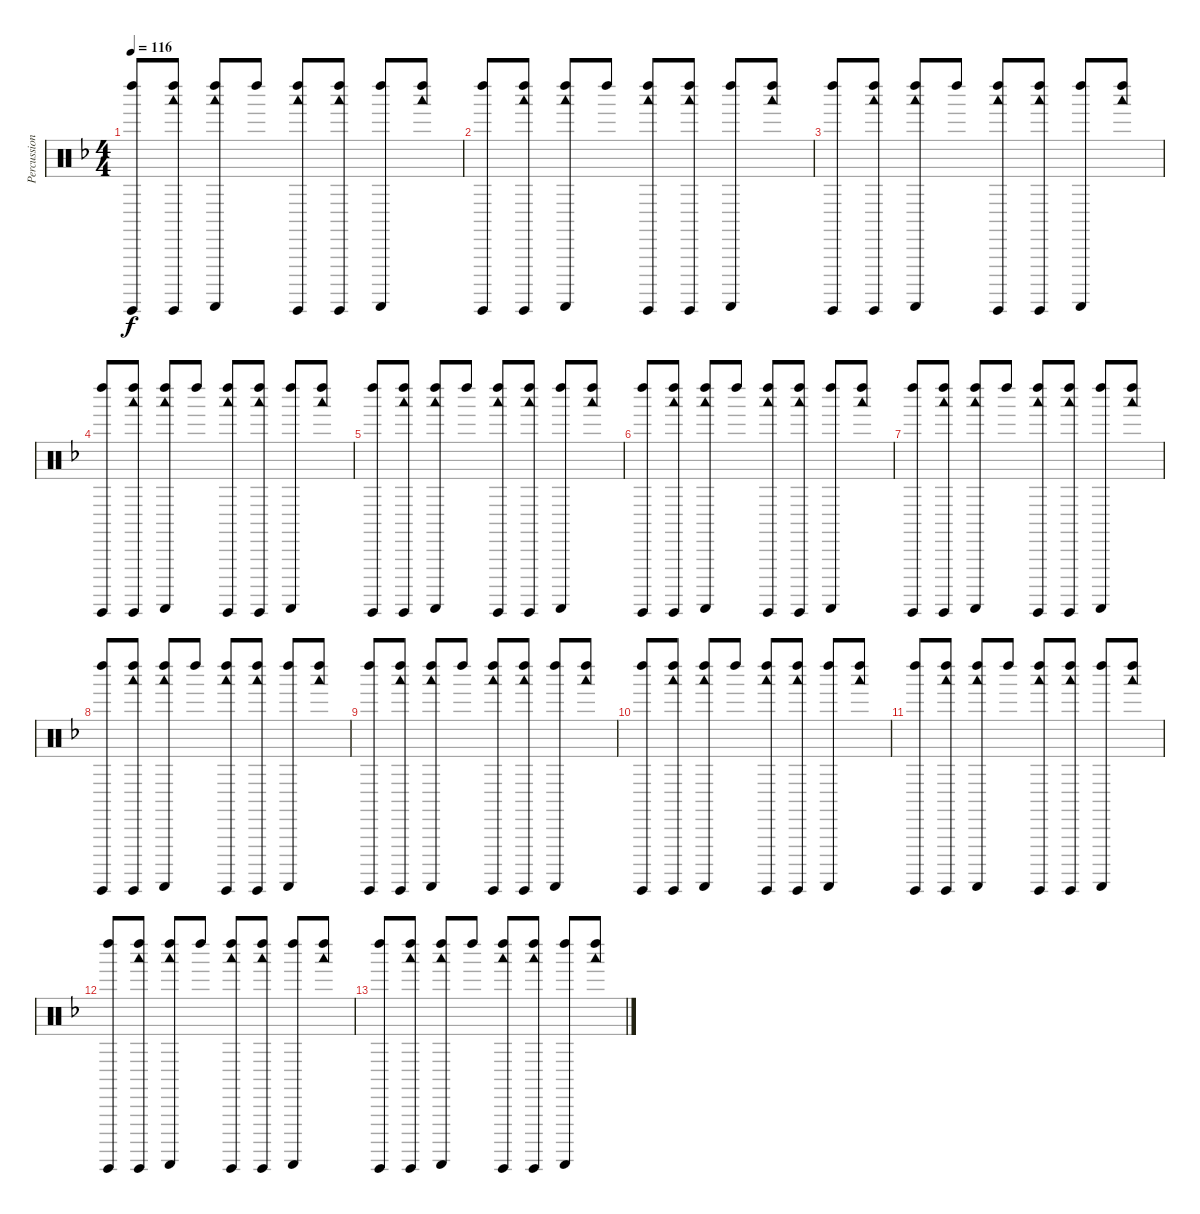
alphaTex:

\track ("Percussions" "Percussion") {instrument percussion}
\staff {score}
\articulation defaults
\ts (4 4)
\tempo 116
\clef neutral
\ks dminor
("Guiro (hit)" "Left Maraca (hit)").8{dy f} ("Guiro (hit)" "Left Maraca (hit)" "Woodblock low (hit)").8 ("Guiro (scrap-return)" "Left Maraca (hit)" "Woodblock low (hit)").8 "Left Maraca (hit)".8 ("Guiro (hit)" "Left Maraca (hit)" "Woodblock low (hit)").8 ("Guiro (hit)" "Left Maraca (hit)" "Woodblock low (hit)").8 ("Guiro (scrap-return)" "Left Maraca (hit)").8 ("Left Maraca (hit)" "Woodblock low (hit)").8 |
("Guiro (hit)" "Left Maraca (hit)").8 ("Guiro (hit)" "Left Maraca (hit)" "Woodblock low (hit)").8 ("Guiro (scrap-return)" "Left Maraca (hit)" "Woodblock low (hit)").8 "Left Maraca (hit)".8 ("Guiro (hit)" "Left Maraca (hit)" "Woodblock low (hit)").8 ("Guiro (hit)" "Left Maraca (hit)" "Woodblock low (hit)").8 ("Guiro (scrap-return)" "Left Maraca (hit)").8 ("Left Maraca (hit)" "Woodblock low (hit)").8 |
("Guiro (hit)" "Left Maraca (hit)").8 ("Guiro (hit)" "Left Maraca (hit)" "Woodblock low (hit)").8 ("Guiro (scrap-return)" "Left Maraca (hit)" "Woodblock low (hit)").8 "Left Maraca (hit)".8 ("Guiro (hit)" "Left Maraca (hit)" "Woodblock low (hit)").8 ("Guiro (hit)" "Left Maraca (hit)" "Woodblock low (hit)").8 ("Guiro (scrap-return)" "Left Maraca (hit)").8 ("Left Maraca (hit)" "Woodblock low (hit)").8 |
("Guiro (hit)" "Left Maraca (hit)").8 ("Guiro (hit)" "Left Maraca (hit)" "Woodblock low (hit)").8 ("Guiro (scrap-return)" "Left Maraca (hit)" "Woodblock low (hit)").8 "Left Maraca (hit)".8 ("Guiro (hit)" "Left Maraca (hit)" "Woodblock low (hit)").8 ("Guiro (hit)" "Left Maraca (hit)" "Woodblock low (hit)").8 ("Guiro (scrap-return)" "Left Maraca (hit)").8 ("Left Maraca (hit)" "Woodblock low (hit)").8 |
("Guiro (hit)" "Left Maraca (hit)").8 ("Guiro (hit)" "Left Maraca (hit)" "Woodblock low (hit)").8 ("Guiro (scrap-return)" "Left Maraca (hit)" "Woodblock low (hit)").8 "Left Maraca (hit)".8 ("Guiro (hit)" "Left Maraca (hit)" "Woodblock low (hit)").8 ("Guiro (hit)" "Left Maraca (hit)" "Woodblock low (hit)").8 ("Guiro (scrap-return)" "Left Maraca (hit)").8 ("Left Maraca (hit)" "Woodblock low (hit)").8 |
("Guiro (hit)" "Left Maraca (hit)").8 ("Guiro (hit)" "Left Maraca (hit)" "Woodblock low (hit)").8 ("Guiro (scrap-return)" "Left Maraca (hit)" "Woodblock low (hit)").8 "Left Maraca (hit)".8 ("Guiro (hit)" "Left Maraca (hit)" "Woodblock low (hit)").8 ("Guiro (hit)" "Left Maraca (hit)" "Woodblock low (hit)").8 ("Guiro (scrap-return)" "Left Maraca (hit)").8 ("Left Maraca (hit)" "Woodblock low (hit)").8 |
("Guiro (hit)" "Left Maraca (hit)").8 ("Guiro (hit)" "Left Maraca (hit)" "Woodblock low (hit)").8 ("Guiro (scrap-return)" "Left Maraca (hit)" "Woodblock low (hit)").8 "Left Maraca (hit)".8 ("Guiro (hit)" "Left Maraca (hit)" "Woodblock low (hit)").8 ("Guiro (hit)" "Left Maraca (hit)" "Woodblock low (hit)").8 ("Guiro (scrap-return)" "Left Maraca (hit)").8 ("Left Maraca (hit)" "Woodblock low (hit)").8 |
("Guiro (hit)" "Left Maraca (hit)").8 ("Guiro (hit)" "Left Maraca (hit)" "Woodblock low (hit)").8 ("Guiro (scrap-return)" "Left Maraca (hit)" "Woodblock low (hit)").8 "Left Maraca (hit)".8 ("Guiro (hit)" "Left Maraca (hit)" "Woodblock low (hit)").8 ("Guiro (hit)" "Left Maraca (hit)" "Woodblock low (hit)").8 ("Guiro (scrap-return)" "Left Maraca (hit)").8 ("Left Maraca (hit)" "Woodblock low (hit)").8 |
("Guiro (hit)" "Left Maraca (hit)").8 ("Guiro (hit)" "Left Maraca (hit)" "Woodblock low (hit)").8 ("Guiro (scrap-return)" "Left Maraca (hit)" "Woodblock low (hit)").8 "Left Maraca (hit)".8 ("Guiro (hit)" "Left Maraca (hit)" "Woodblock low (hit)").8 ("Guiro (hit)" "Left Maraca (hit)" "Woodblock low (hit)").8 ("Guiro (scrap-return)" "Left Maraca (hit)").8 ("Left Maraca (hit)" "Woodblock low (hit)").8 |
("Guiro (hit)" "Left Maraca (hit)").8 ("Guiro (hit)" "Left Maraca (hit)" "Woodblock low (hit)").8 ("Guiro (scrap-return)" "Left Maraca (hit)" "Woodblock low (hit)").8 "Left Maraca (hit)".8 ("Guiro (hit)" "Left Maraca (hit)" "Woodblock low (hit)").8 ("Guiro (hit)" "Left Maraca (hit)" "Woodblock low (hit)").8 ("Guiro (scrap-return)" "Left Maraca (hit)").8 ("Left Maraca (hit)" "Woodblock low (hit)").8 |
("Guiro (hit)" "Left Maraca (hit)").8 ("Guiro (hit)" "Left Maraca (hit)" "Woodblock low (hit)").8 ("Guiro (scrap-return)" "Left Maraca (hit)" "Woodblock low (hit)").8 "Left Maraca (hit)".8 ("Guiro (hit)" "Left Maraca (hit)" "Woodblock low (hit)").8 ("Guiro (hit)" "Left Maraca (hit)" "Woodblock low (hit)").8 ("Guiro (scrap-return)" "Left Maraca (hit)").8 ("Left Maraca (hit)" "Woodblock low (hit)").8 |
("Guiro (hit)" "Left Maraca (hit)").8 ("Guiro (hit)" "Left Maraca (hit)" "Woodblock low (hit)").8 ("Guiro (scrap-return)" "Left Maraca (hit)" "Woodblock low (hit)").8 "Left Maraca (hit)".8 ("Guiro (hit)" "Left Maraca (hit)" "Woodblock low (hit)").8 ("Guiro (hit)" "Left Maraca (hit)" "Woodblock low (hit)").8 ("Guiro (scrap-return)" "Left Maraca (hit)").8 ("Left Maraca (hit)" "Woodblock low (hit)").8 |
("Guiro (hit)" "Left Maraca (hit)").8 ("Guiro (hit)" "Left Maraca (hit)" "Woodblock low (hit)").8 ("Guiro (scrap-return)" "Left Maraca (hit)" "Woodblock low (hit)").8 "Left Maraca (hit)".8 ("Guiro (hit)" "Left Maraca (hit)" "Woodblock low (hit)").8 ("Guiro (hit)" "Left Maraca (hit)" "Woodblock low (hit)").8 ("Guiro (scrap-return)" "Left Maraca (hit)").8 ("Left Maraca (hit)" "Woodblock low (hit)").8
